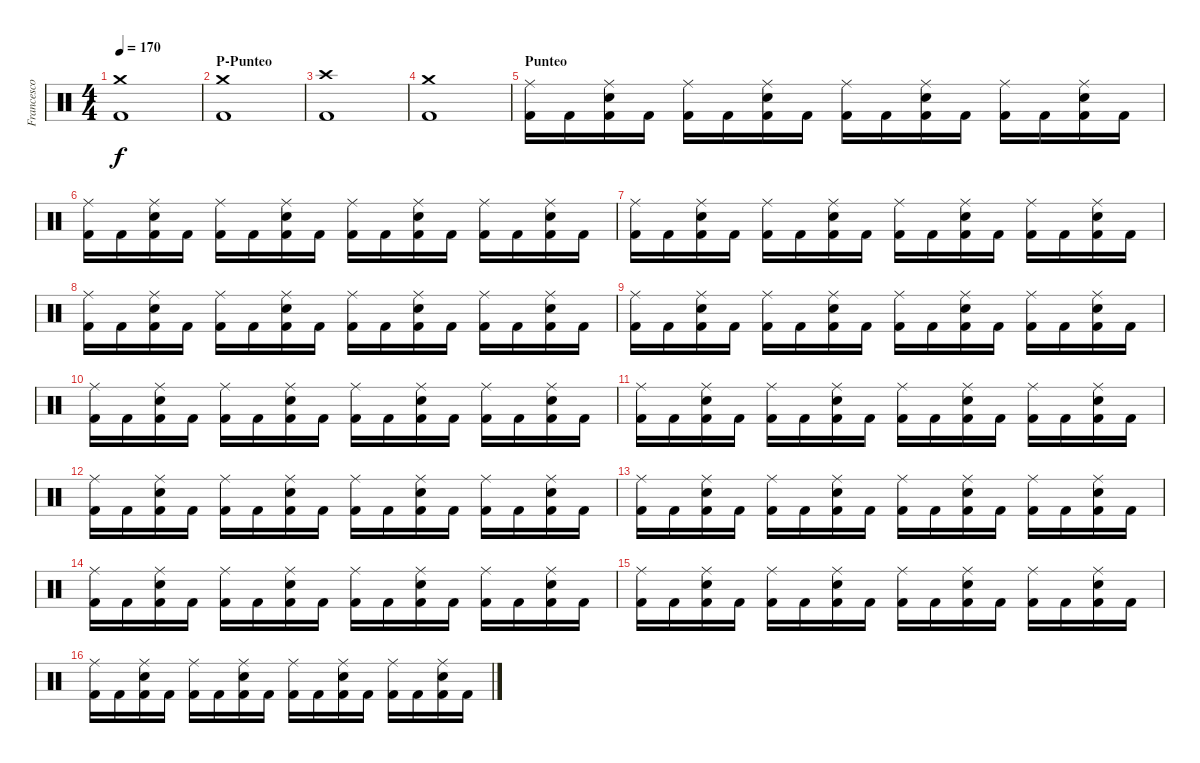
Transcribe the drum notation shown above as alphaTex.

\track ("Francesco Tresa" "Francesco ") {instrument percussion}
\staff {score}
\articulation defaults
\ts (4 4)
\tempo 170
\clef neutral
\ks c
("Crash medium (hit)" "Kick (hit) 2").1{dy f} |
\section ("" "P-Punteo")
("Crash medium (hit)" "Kick (hit) 2").1 |
("Crash high (hit)" "Kick (hit) 2").1 |
("Crash medium (hit)" "Kick (hit) 2").1 |
\section ("" "Punteo")
("Ride (middle)" "Kick (hit) 2").16 "Kick (hit) 2".16 ("Ride (middle)" "Kick (hit) 2" "Electric Snare (hit)").16 "Kick (hit) 2".16 ("Ride (middle)" "Kick (hit) 2").16 "Kick (hit) 2".16 ("Ride (middle)" "Kick (hit) 2" "Electric Snare (hit)").16 "Kick (hit) 2".16 ("Ride (middle)" "Kick (hit) 2").16 "Kick (hit) 2".16 ("Ride (middle)" "Kick (hit) 2" "Electric Snare (hit)").16 "Kick (hit) 2".16 ("Ride (middle)" "Kick (hit) 2").16 "Kick (hit) 2".16 ("Ride (middle)" "Kick (hit) 2" "Electric Snare (hit)").16 "Kick (hit) 2".16 |
("Ride (middle)" "Kick (hit) 2").16 "Kick (hit) 2".16 ("Ride (middle)" "Kick (hit) 2" "Electric Snare (hit)").16 "Kick (hit) 2".16 ("Ride (middle)" "Kick (hit) 2").16 "Kick (hit) 2".16 ("Ride (middle)" "Kick (hit) 2" "Electric Snare (hit)").16 "Kick (hit) 2".16 ("Ride (middle)" "Kick (hit) 2").16 "Kick (hit) 2".16 ("Ride (middle)" "Kick (hit) 2" "Electric Snare (hit)").16 "Kick (hit) 2".16 ("Ride (middle)" "Kick (hit) 2").16 "Kick (hit) 2".16 ("Ride (middle)" "Kick (hit) 2" "Electric Snare (hit)").16 "Kick (hit) 2".16 |
("Ride (middle)" "Kick (hit) 2").16 "Kick (hit) 2".16 ("Ride (middle)" "Kick (hit) 2" "Electric Snare (hit)").16 "Kick (hit) 2".16 ("Ride (middle)" "Kick (hit) 2").16 "Kick (hit) 2".16 ("Ride (middle)" "Kick (hit) 2" "Electric Snare (hit)").16 "Kick (hit) 2".16 ("Ride (middle)" "Kick (hit) 2").16 "Kick (hit) 2".16 ("Ride (middle)" "Kick (hit) 2" "Electric Snare (hit)").16 "Kick (hit) 2".16 ("Ride (middle)" "Kick (hit) 2").16 "Kick (hit) 2".16 ("Ride (middle)" "Kick (hit) 2" "Electric Snare (hit)").16 "Kick (hit) 2".16 |
("Ride (middle)" "Kick (hit) 2").16 "Kick (hit) 2".16 ("Ride (middle)" "Kick (hit) 2" "Electric Snare (hit)").16 "Kick (hit) 2".16 ("Ride (middle)" "Kick (hit) 2").16 "Kick (hit) 2".16 ("Ride (middle)" "Kick (hit) 2" "Electric Snare (hit)").16 "Kick (hit) 2".16 ("Ride (middle)" "Kick (hit) 2").16 "Kick (hit) 2".16 ("Ride (middle)" "Kick (hit) 2" "Electric Snare (hit)").16 "Kick (hit) 2".16 ("Ride (middle)" "Kick (hit) 2").16 "Kick (hit) 2".16 ("Ride (middle)" "Kick (hit) 2" "Electric Snare (hit)").16 "Kick (hit) 2".16 |
("Ride (middle)" "Kick (hit) 2").16 "Kick (hit) 2".16 ("Ride (middle)" "Kick (hit) 2" "Electric Snare (hit)").16 "Kick (hit) 2".16 ("Ride (middle)" "Kick (hit) 2").16 "Kick (hit) 2".16 ("Ride (middle)" "Kick (hit) 2" "Electric Snare (hit)").16 "Kick (hit) 2".16 ("Ride (middle)" "Kick (hit) 2").16 "Kick (hit) 2".16 ("Ride (middle)" "Kick (hit) 2" "Electric Snare (hit)").16 "Kick (hit) 2".16 ("Ride (middle)" "Kick (hit) 2").16 "Kick (hit) 2".16 ("Ride (middle)" "Kick (hit) 2" "Electric Snare (hit)").16 "Kick (hit) 2".16 |
("Ride (middle)" "Kick (hit) 2").16 "Kick (hit) 2".16 ("Ride (middle)" "Kick (hit) 2" "Electric Snare (hit)").16 "Kick (hit) 2".16 ("Ride (middle)" "Kick (hit) 2").16 "Kick (hit) 2".16 ("Ride (middle)" "Kick (hit) 2" "Electric Snare (hit)").16 "Kick (hit) 2".16 ("Ride (middle)" "Kick (hit) 2").16 "Kick (hit) 2".16 ("Ride (middle)" "Kick (hit) 2" "Electric Snare (hit)").16 "Kick (hit) 2".16 ("Ride (middle)" "Kick (hit) 2").16 "Kick (hit) 2".16 ("Ride (middle)" "Kick (hit) 2" "Electric Snare (hit)").16 "Kick (hit) 2".16 |
("Ride (middle)" "Kick (hit) 2").16 "Kick (hit) 2".16 ("Ride (middle)" "Kick (hit) 2" "Electric Snare (hit)").16 "Kick (hit) 2".16 ("Ride (middle)" "Kick (hit) 2").16 "Kick (hit) 2".16 ("Ride (middle)" "Kick (hit) 2" "Electric Snare (hit)").16 "Kick (hit) 2".16 ("Ride (middle)" "Kick (hit) 2").16 "Kick (hit) 2".16 ("Ride (middle)" "Kick (hit) 2" "Electric Snare (hit)").16 "Kick (hit) 2".16 ("Ride (middle)" "Kick (hit) 2").16 "Kick (hit) 2".16 ("Ride (middle)" "Kick (hit) 2" "Electric Snare (hit)").16 "Kick (hit) 2".16 |
("Ride (middle)" "Kick (hit) 2").16 "Kick (hit) 2".16 ("Ride (middle)" "Kick (hit) 2" "Electric Snare (hit)").16 "Kick (hit) 2".16 ("Ride (middle)" "Kick (hit) 2").16 "Kick (hit) 2".16 ("Ride (middle)" "Kick (hit) 2" "Electric Snare (hit)").16 "Kick (hit) 2".16 ("Ride (middle)" "Kick (hit) 2").16 "Kick (hit) 2".16 ("Ride (middle)" "Kick (hit) 2" "Electric Snare (hit)").16 "Kick (hit) 2".16 ("Ride (middle)" "Kick (hit) 2").16 "Kick (hit) 2".16 ("Ride (middle)" "Kick (hit) 2" "Electric Snare (hit)").16 "Kick (hit) 2".16 |
("Ride (middle)" "Kick (hit) 2").16 "Kick (hit) 2".16 ("Ride (middle)" "Kick (hit) 2" "Electric Snare (hit)").16 "Kick (hit) 2".16 ("Ride (middle)" "Kick (hit) 2").16 "Kick (hit) 2".16 ("Ride (middle)" "Kick (hit) 2" "Electric Snare (hit)").16 "Kick (hit) 2".16 ("Ride (middle)" "Kick (hit) 2").16 "Kick (hit) 2".16 ("Ride (middle)" "Kick (hit) 2" "Electric Snare (hit)").16 "Kick (hit) 2".16 ("Ride (middle)" "Kick (hit) 2").16 "Kick (hit) 2".16 ("Ride (middle)" "Kick (hit) 2" "Electric Snare (hit)").16 "Kick (hit) 2".16 |
("Ride (middle)" "Kick (hit) 2").16 "Kick (hit) 2".16 ("Ride (middle)" "Kick (hit) 2" "Electric Snare (hit)").16 "Kick (hit) 2".16 ("Ride (middle)" "Kick (hit) 2").16 "Kick (hit) 2".16 ("Ride (middle)" "Kick (hit) 2" "Electric Snare (hit)").16 "Kick (hit) 2".16 ("Ride (middle)" "Kick (hit) 2").16 "Kick (hit) 2".16 ("Ride (middle)" "Kick (hit) 2" "Electric Snare (hit)").16 "Kick (hit) 2".16 ("Ride (middle)" "Kick (hit) 2").16 "Kick (hit) 2".16 ("Ride (middle)" "Kick (hit) 2" "Electric Snare (hit)").16 "Kick (hit) 2".16 |
("Ride (middle)" "Kick (hit) 2").16 "Kick (hit) 2".16 ("Ride (middle)" "Kick (hit) 2" "Electric Snare (hit)").16 "Kick (hit) 2".16 ("Ride (middle)" "Kick (hit) 2").16 "Kick (hit) 2".16 ("Ride (middle)" "Kick (hit) 2" "Electric Snare (hit)").16 "Kick (hit) 2".16 ("Ride (middle)" "Kick (hit) 2").16 "Kick (hit) 2".16 ("Ride (middle)" "Kick (hit) 2" "Electric Snare (hit)").16 "Kick (hit) 2".16 ("Ride (middle)" "Kick (hit) 2").16 "Kick (hit) 2".16 ("Ride (middle)" "Kick (hit) 2" "Electric Snare (hit)").16 "Kick (hit) 2".16 |
("Ride (middle)" "Kick (hit) 2").16 "Kick (hit) 2".16 ("Ride (middle)" "Kick (hit) 2" "Electric Snare (hit)").16 "Kick (hit) 2".16 ("Ride (middle)" "Kick (hit) 2").16 "Kick (hit) 2".16 ("Ride (middle)" "Kick (hit) 2" "Electric Snare (hit)").16 "Kick (hit) 2".16 ("Ride (middle)" "Kick (hit) 2").16 "Kick (hit) 2".16 ("Ride (middle)" "Kick (hit) 2" "Electric Snare (hit)").16 "Kick (hit) 2".16 ("Ride (middle)" "Kick (hit) 2").16 "Kick (hit) 2".16 ("Ride (middle)" "Kick (hit) 2" "Electric Snare (hit)").16 "Kick (hit) 2".16
